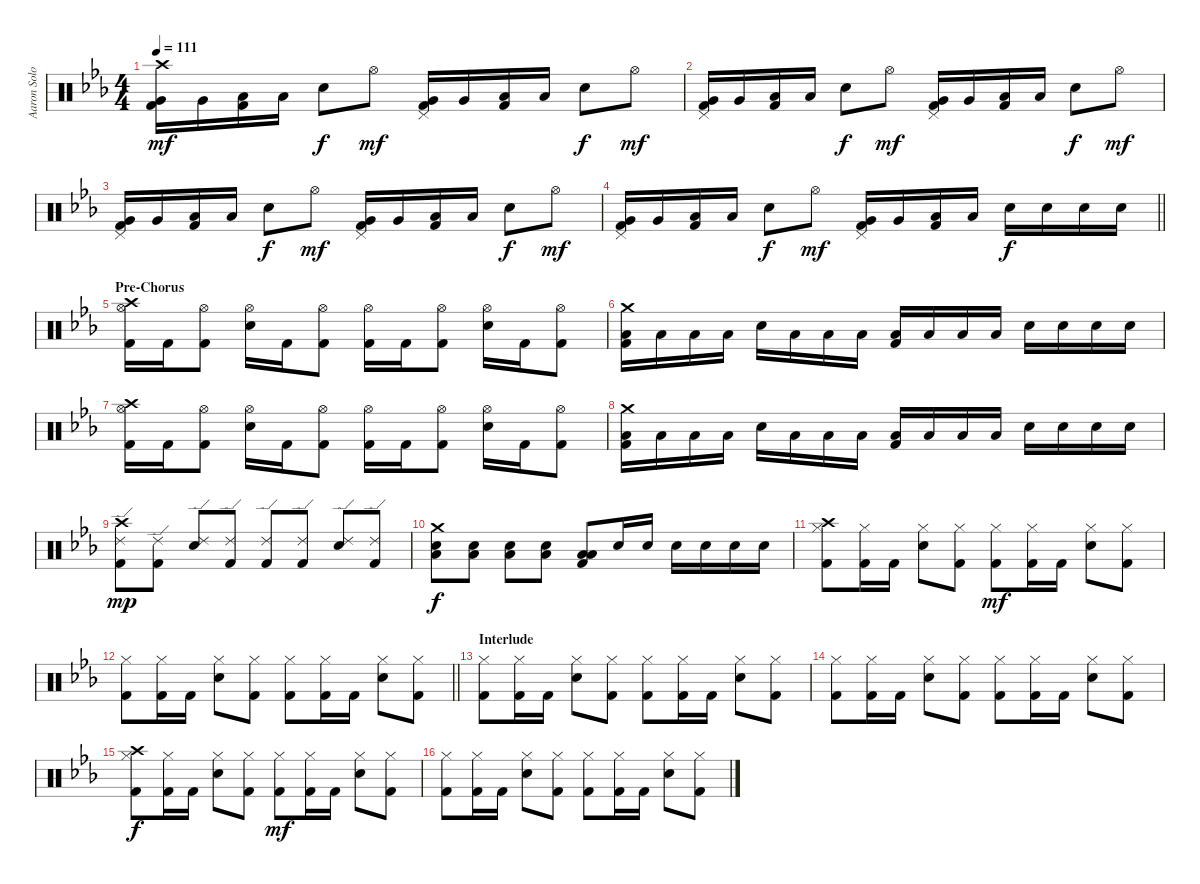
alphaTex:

\track ("Aaron Solowoniuk (Drums)" "Aaron Solo") {instrument percussion}
\staff {score}
\articulation defaults
\ts (4 4)
\tempo 111
\clef neutral
\ks cminor
("Crash high (hit)" "Very Low Tom (hit)" "Kick (hit) 2").16{dy mf} "Very Low Tom (hit)".16 ("Low Floor Tom (hit)" "Kick (hit) 2").16 "Low Floor Tom (hit)".16 "Snare (hit) 2".8{dy f} "Hi-Hat (open)".8{dy mf} ("Pedal Hi-Hat (hit)" "Very Low Tom (hit)" "Kick (hit) 2").16 "Very Low Tom (hit)".16 ("Low Floor Tom (hit)" "Kick (hit) 2").16 "Low Floor Tom (hit)".16 "Snare (hit) 2".8{dy f} "Hi-Hat (open)".8{dy mf} |
("Pedal Hi-Hat (hit)" "Very Low Tom (hit)" "Kick (hit) 2").16 "Very Low Tom (hit)".16 ("Low Floor Tom (hit)" "Kick (hit) 2").16 "Low Floor Tom (hit)".16 "Snare (hit) 2".8{dy f} "Hi-Hat (open)".8{dy mf} ("Pedal Hi-Hat (hit)" "Very Low Tom (hit)" "Kick (hit) 2").16 "Very Low Tom (hit)".16 ("Low Floor Tom (hit)" "Kick (hit) 2").16 "Low Floor Tom (hit)".16 "Snare (hit) 2".8{dy f} "Hi-Hat (open)".8{dy mf} |
("Pedal Hi-Hat (hit)" "Very Low Tom (hit)" "Kick (hit) 2").16 "Very Low Tom (hit)".16 ("Low Floor Tom (hit)" "Kick (hit) 2").16 "Low Floor Tom (hit)".16 "Snare (hit) 2".8{dy f} "Hi-Hat (open)".8{dy mf} ("Pedal Hi-Hat (hit)" "Very Low Tom (hit)" "Kick (hit) 2").16 "Very Low Tom (hit)".16 ("Low Floor Tom (hit)" "Kick (hit) 2").16 "Low Floor Tom (hit)".16 "Snare (hit) 2".8{dy f} "Hi-Hat (open)".8{dy mf} |
\barLineRight lightlight
("Pedal Hi-Hat (hit)" "Very Low Tom (hit)" "Kick (hit) 2").16 "Very Low Tom (hit)".16 ("Low Floor Tom (hit)" "Kick (hit) 2").16 "Low Floor Tom (hit)".16 "Snare (hit) 2".8{dy f} "Hi-Hat (open)".8{dy mf} ("Pedal Hi-Hat (hit)" "Very Low Tom (hit)" "Kick (hit) 2").16 "Very Low Tom (hit)".16 ("Low Floor Tom (hit)" "Kick (hit) 2").16 "Low Floor Tom (hit)".16 "Snare (hit) 2".16{dy f} "Snare (hit) 2".16 "Snare (hit) 2".16 "Snare (hit) 2".16 |
\section ("" "Pre-Chorus")
("Crash high (hit)" "Hi-Hat (open)" "Kick (hit) 2").16 "Kick (hit) 2".16 ("Hi-Hat (open)" "Kick (hit) 2").8 ("Hi-Hat (open)" "Snare (hit) 2").16 "Kick (hit) 2".16 ("Hi-Hat (open)" "Kick (hit) 2").8 ("Hi-Hat (open)" "Kick (hit) 2").16 "Kick (hit) 2".16 ("Hi-Hat (open)" "Kick (hit) 2").8 ("Hi-Hat (open)" "Snare (hit) 2").16 "Kick (hit) 2".16 ("Hi-Hat (open)" "Kick (hit) 2").8 |
("Crash medium (hit)" "Low Floor Tom (hit)" "Kick (hit) 2").16 "Low Floor Tom (hit)".16 "Low Floor Tom (hit)".16 "Low Tom (hit)".16 "Snare (hit) 2".16 "Low Floor Tom (hit)".16 "Low Floor Tom (hit)".16 "Low Floor Tom (hit)".16 ("Low Tom (hit)" "Kick (hit) 2").16 "Low Floor Tom (hit)".16 "Low Floor Tom (hit)".16 "Low Floor Tom (hit)".16 "Snare (hit) 2".16 "Snare (hit) 2".16 "Snare (hit) 2".16 "Snare (hit) 2".16 |
("Crash high (hit)" "Hi-Hat (open)" "Kick (hit) 2").16 "Kick (hit) 2".16 ("Hi-Hat (open)" "Kick (hit) 2").8 ("Hi-Hat (open)" "Snare (hit) 2").16 "Kick (hit) 2".16 ("Hi-Hat (open)" "Kick (hit) 2").8 ("Hi-Hat (open)" "Kick (hit) 2").16 "Kick (hit) 2".16 ("Hi-Hat (open)" "Kick (hit) 2").8 ("Hi-Hat (open)" "Snare (hit) 2").16 "Kick (hit) 2".16 ("Hi-Hat (open)" "Kick (hit) 2").8 |
("Crash medium (hit)" "Low Floor Tom (hit)" "Kick (hit) 2").16 "Low Floor Tom (hit)".16 "Low Floor Tom (hit)".16 "Low Tom (hit)".16 "Snare (hit) 2".16 "Low Floor Tom (hit)".16 "Low Floor Tom (hit)".16 "Low Floor Tom (hit)".16 ("Low Tom (hit)" "Kick (hit) 2").16 "Low Floor Tom (hit)".16 "Low Floor Tom (hit)".16 "Low Floor Tom (hit)".16 "Snare (hit) 2".16 "Snare (hit) 2".16 "Snare (hit) 2".16 "Snare (hit) 2".16 |
("Crash high (hit)" "Ride (edge) 2" "Kick (hit) 2").8{dy mp} ("Ride (edge) 2" "Kick (hit) 2").8 ("Ride (edge) 2" "Snare (hit) 2").8 ("Ride (edge) 2" "Kick (hit) 2").8 ("Ride (edge) 2" "Kick (hit) 2").8 ("Ride (edge) 2" "Kick (hit) 2").8 ("Ride (edge) 2" "Snare (hit) 2").8 ("Ride (edge) 2" "Kick (hit) 2").8 |
("Crash medium (hit)" "Low Floor Tom (hit)" "Snare (hit) 2").8{dy f} ("Low Floor Tom (hit)" "Snare (hit) 2").8 ("Low Floor Tom (hit)" "Snare (hit) 2").8 ("Low Floor Tom (hit)" "Snare (hit) 2").8 ("Low Floor Tom (hit)" "Low Tom (hit)" "Kick (hit) 2").8 "Snare (hit) 2".16 "Snare (hit) 2".16 "Snare (hit) 2".16 "Snare (hit) 2".16 "Snare (hit) 2".16 "Snare (hit) 2".16 |
("Crash high (hit)" "Hi-Hat (closed)" "Kick (hit) 2").8 ("Hi-Hat (closed)" "Kick (hit) 2").16 "Kick (hit) 2".16 ("Hi-Hat (closed)" "Snare (hit) 2").8 ("Hi-Hat (closed)" "Kick (hit) 2").8 ("Hi-Hat (closed)" "Kick (hit) 2").8{dy mf} ("Hi-Hat (closed)" "Kick (hit) 2").16 "Kick (hit) 2".16 ("Hi-Hat (closed)" "Snare (hit) 2").8 ("Hi-Hat (closed)" "Kick (hit) 2").8 |
\barLineRight lightlight
("Hi-Hat (closed)" "Kick (hit) 2").8 ("Hi-Hat (closed)" "Kick (hit) 2").16 "Kick (hit) 2".16 ("Hi-Hat (closed)" "Snare (hit) 2").8 ("Hi-Hat (closed)" "Kick (hit) 2").8 ("Hi-Hat (closed)" "Kick (hit) 2").8 ("Hi-Hat (closed)" "Kick (hit) 2").16 "Kick (hit) 2".16 ("Hi-Hat (closed)" "Snare (hit) 2").8 ("Hi-Hat (closed)" "Kick (hit) 2").8 |
\section ("" "Interlude")
("Hi-Hat (closed)" "Kick (hit) 2").8 ("Hi-Hat (closed)" "Kick (hit) 2").16 "Kick (hit) 2".16 ("Hi-Hat (closed)" "Snare (hit) 2").8 ("Hi-Hat (closed)" "Kick (hit) 2").8 ("Hi-Hat (closed)" "Kick (hit) 2").8 ("Hi-Hat (closed)" "Kick (hit) 2").16 "Kick (hit) 2".16 ("Hi-Hat (closed)" "Snare (hit) 2").8 ("Hi-Hat (closed)" "Kick (hit) 2").8 |
("Hi-Hat (closed)" "Kick (hit) 2").8 ("Hi-Hat (closed)" "Kick (hit) 2").16 "Kick (hit) 2".16 ("Hi-Hat (closed)" "Snare (hit) 2").8 ("Hi-Hat (closed)" "Kick (hit) 2").8 ("Hi-Hat (closed)" "Kick (hit) 2").8 ("Hi-Hat (closed)" "Kick (hit) 2").16 "Kick (hit) 2".16 ("Hi-Hat (closed)" "Snare (hit) 2").8 ("Hi-Hat (closed)" "Kick (hit) 2").8 |
("Crash high (hit)" "Hi-Hat (closed)" "Kick (hit) 2").8{dy f} ("Hi-Hat (closed)" "Kick (hit) 2").16 "Kick (hit) 2".16 ("Hi-Hat (closed)" "Snare (hit) 2").8 ("Hi-Hat (closed)" "Kick (hit) 2").8 ("Hi-Hat (closed)" "Kick (hit) 2").8{dy mf} ("Hi-Hat (closed)" "Kick (hit) 2").16 "Kick (hit) 2".16 ("Hi-Hat (closed)" "Snare (hit) 2").8 ("Hi-Hat (closed)" "Kick (hit) 2").8 |
("Hi-Hat (closed)" "Kick (hit) 2").8 ("Hi-Hat (closed)" "Kick (hit) 2").16 "Kick (hit) 2".16 ("Hi-Hat (closed)" "Snare (hit) 2").8 ("Hi-Hat (closed)" "Kick (hit) 2").8 ("Hi-Hat (closed)" "Kick (hit) 2").8 ("Hi-Hat (closed)" "Kick (hit) 2").16 "Kick (hit) 2".16 ("Hi-Hat (closed)" "Snare (hit) 2").8 ("Hi-Hat (closed)" "Kick (hit) 2").8
